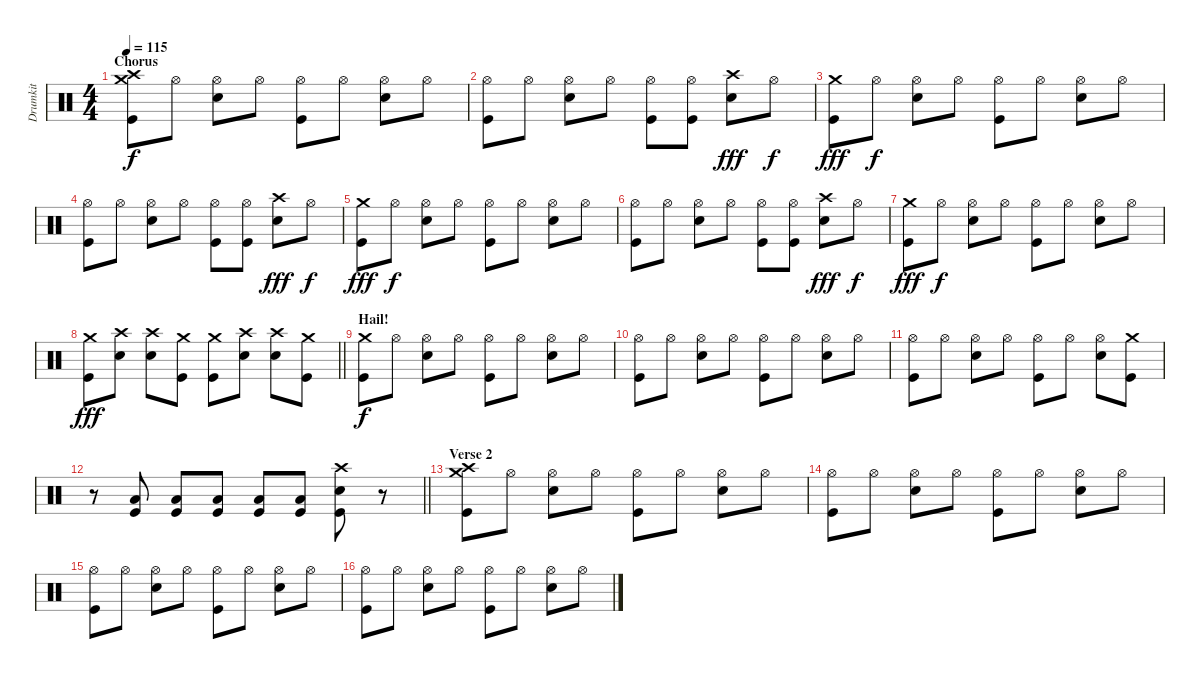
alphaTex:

\track ("Drumkit" "Drumkit") {instrument percussion}
\staff {score}
\articulation defaults
\ts (4 4)
\section ("" "Chorus")
\tempo 115
\clef neutral
\ks c
("Crash high (hit)" "Crash medium (hit)" "Kick (hit)").8{dy f} "Hi-Hat (open)".8 ("Hi-Hat (open)" "Snare (hit) 2").8 "Hi-Hat (open)".8 ("Hi-Hat (open)" "Kick (hit)").8 "Hi-Hat (open)".8 ("Hi-Hat (open)" "Snare (hit) 2").8 "Hi-Hat (open)".8 |
("Hi-Hat (open)" "Kick (hit)").8 "Hi-Hat (open)".8 ("Hi-Hat (open)" "Snare (hit) 2").8 "Hi-Hat (open)".8 ("Hi-Hat (open)" "Kick (hit)").8 ("Hi-Hat (open)" "Kick (hit)").8 ("Crash high (hit)" "Snare (hit) 2").8{dy fff} "Hi-Hat (open)".8{dy f} |
("Crash medium (hit)" "Kick (hit)").8{dy fff} "Hi-Hat (open)".8{dy f} ("Hi-Hat (open)" "Snare (hit) 2").8 "Hi-Hat (open)".8 ("Hi-Hat (open)" "Kick (hit)").8 "Hi-Hat (open)".8 ("Hi-Hat (open)" "Snare (hit) 2").8 "Hi-Hat (open)".8 |
("Hi-Hat (open)" "Kick (hit)").8 "Hi-Hat (open)".8 ("Hi-Hat (open)" "Snare (hit) 2").8 "Hi-Hat (open)".8 ("Hi-Hat (open)" "Kick (hit)").8 ("Hi-Hat (open)" "Kick (hit)").8 ("Crash high (hit)" "Snare (hit) 2").8{dy fff} "Hi-Hat (open)".8{dy f} |
("Crash medium (hit)" "Kick (hit)").8{dy fff} "Hi-Hat (open)".8{dy f} ("Hi-Hat (open)" "Snare (hit) 2").8 "Hi-Hat (open)".8 ("Hi-Hat (open)" "Kick (hit)").8 "Hi-Hat (open)".8 ("Hi-Hat (open)" "Snare (hit) 2").8 "Hi-Hat (open)".8 |
("Hi-Hat (open)" "Kick (hit)").8 "Hi-Hat (open)".8 ("Hi-Hat (open)" "Snare (hit) 2").8 "Hi-Hat (open)".8 ("Hi-Hat (open)" "Kick (hit)").8 ("Hi-Hat (open)" "Kick (hit)").8 ("Crash high (hit)" "Snare (hit) 2").8{dy fff} "Hi-Hat (open)".8{dy f} |
("Crash medium (hit)" "Kick (hit)").8{dy fff} "Hi-Hat (open)".8{dy f} ("Hi-Hat (open)" "Snare (hit) 2").8 "Hi-Hat (open)".8 ("Hi-Hat (open)" "Kick (hit)").8 "Hi-Hat (open)".8 ("Hi-Hat (open)" "Snare (hit) 2").8 "Hi-Hat (open)".8 |
\barLineRight lightlight
("Crash medium (hit)" "Kick (hit)").8{dy fff} ("Crash high (hit)" "Snare (hit) 2").8 ("Crash high (hit)" "Snare (hit) 2").8 ("Crash medium (hit)" "Kick (hit)").8 ("Crash medium (hit)" "Kick (hit)").8 ("Crash high (hit)" "Snare (hit) 2").8 ("Crash high (hit)" "Snare (hit) 2").8 ("Crash medium (hit)" "Kick (hit)").8 |
\section ("" "Hail!")
("Crash medium (hit)" "Kick (hit)").8{dy f} "Hi-Hat (open)".8 ("Hi-Hat (open)" "Snare (hit) 2").8 "Hi-Hat (open)".8 ("Hi-Hat (open)" "Kick (hit)").8 "Hi-Hat (open)".8 ("Hi-Hat (open)" "Snare (hit) 2").8 "Hi-Hat (open)".8 |
("Hi-Hat (open)" "Kick (hit)").8 "Hi-Hat (open)".8 ("Hi-Hat (open)" "Snare (hit) 2").8 "Hi-Hat (open)".8 ("Hi-Hat (open)" "Kick (hit)").8 "Hi-Hat (open)".8 ("Hi-Hat (open)" "Snare (hit) 2").8 "Hi-Hat (open)".8 |
("Hi-Hat (open)" "Kick (hit)").8 "Hi-Hat (open)".8 ("Hi-Hat (open)" "Snare (hit) 2").8 "Hi-Hat (open)".8 ("Hi-Hat (open)" "Kick (hit)").8 "Hi-Hat (open)".8 ("Hi-Hat (open)" "Snare (hit) 2").8 ("Crash medium (hit)" "Kick (hit)").8 |
\barLineRight lightlight
r.8 ("Kick (hit)" "Low Tom (hit)").8 ("Kick (hit)" "Low Tom (hit)").8 ("Kick (hit)" "Low Tom (hit)").8 ("Kick (hit)" "Low Tom (hit)").8 ("Kick (hit)" "Low Tom (hit)").8 ("Crash high (hit)" "Kick (hit)" "Snare (hit) 2").8 r.8 |
\section ("" "Verse 2")
("Crash high (hit)" "Crash medium (hit)" "Kick (hit)").8 "Hi-Hat (open)".8 ("Hi-Hat (open)" "Snare (hit) 2").8 "Hi-Hat (open)".8 ("Hi-Hat (open)" "Kick (hit)").8 "Hi-Hat (open)".8 ("Hi-Hat (open)" "Snare (hit) 2").8 "Hi-Hat (open)".8 |
("Hi-Hat (open)" "Kick (hit)").8 "Hi-Hat (open)".8 ("Hi-Hat (open)" "Snare (hit) 2").8 "Hi-Hat (open)".8 ("Hi-Hat (open)" "Kick (hit)").8 "Hi-Hat (open)".8 ("Hi-Hat (open)" "Snare (hit) 2").8 "Hi-Hat (open)".8 |
("Hi-Hat (open)" "Kick (hit)").8 "Hi-Hat (open)".8 ("Hi-Hat (open)" "Snare (hit) 2").8 "Hi-Hat (open)".8 ("Hi-Hat (open)" "Kick (hit)").8 "Hi-Hat (open)".8 ("Hi-Hat (open)" "Snare (hit) 2").8 "Hi-Hat (open)".8 |
("Hi-Hat (open)" "Kick (hit)").8 "Hi-Hat (open)".8 ("Hi-Hat (open)" "Snare (hit) 2").8 "Hi-Hat (open)".8 ("Hi-Hat (open)" "Kick (hit)").8 "Hi-Hat (open)".8 ("Hi-Hat (open)" "Snare (hit) 2").8 "Hi-Hat (open)".8
